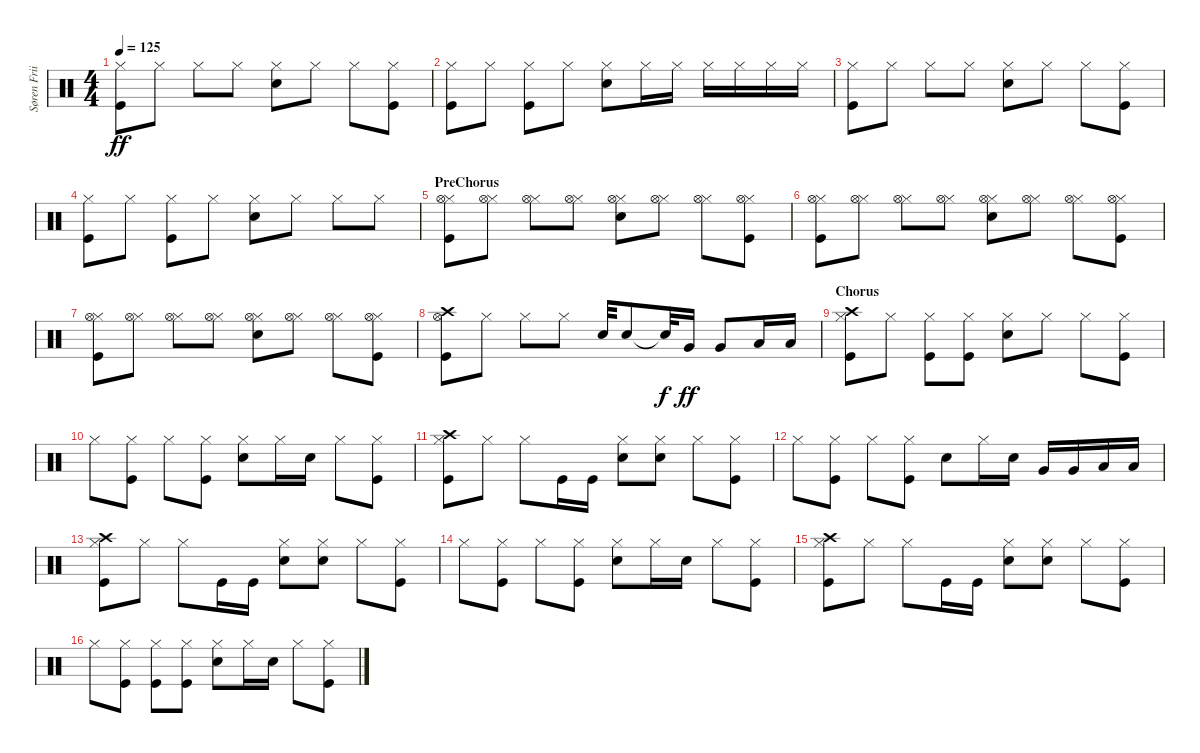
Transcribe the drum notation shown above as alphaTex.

\track ("Søren Friis - Drums" "Søren Frii") {instrument percussion}
\staff {score}
\articulation defaults
\ts (4 4)
\tempo 125
\clef neutral
\ks c
("Kick (hit)" "Hi-Hat (closed)").8{dy ff} "Hi-Hat (closed)".8 "Hi-Hat (closed)".8 "Hi-Hat (closed)".8 ("Snare (hit) 2" "Hi-Hat (closed)").8 "Hi-Hat (closed)".8 "Hi-Hat (closed)".8 ("Kick (hit)" "Hi-Hat (closed)").8 |
("Kick (hit)" "Hi-Hat (closed)").8 "Hi-Hat (closed)".8 ("Kick (hit)" "Hi-Hat (closed)").8 "Hi-Hat (closed)".8 ("Snare (hit) 2" "Hi-Hat (closed)").8 "Hi-Hat (closed)".16 "Hi-Hat (closed)".16 "Hi-Hat (closed)".16 "Hi-Hat (closed)".16 "Hi-Hat (closed)".16 "Hi-Hat (closed)".16 |
("Kick (hit)" "Hi-Hat (closed)").8 "Hi-Hat (closed)".8 "Hi-Hat (closed)".8 "Hi-Hat (closed)".8 ("Snare (hit) 2" "Hi-Hat (closed)").8 "Hi-Hat (closed)".8 "Hi-Hat (closed)".8 ("Kick (hit)" "Hi-Hat (closed)").8 |
("Kick (hit)" "Hi-Hat (closed)").8 "Hi-Hat (closed)".8 ("Kick (hit)" "Hi-Hat (closed)").8 "Hi-Hat (closed)".8 ("Snare (hit) 2" "Hi-Hat (closed)").8 "Hi-Hat (closed)".8 "Hi-Hat (closed)".8 "Hi-Hat (closed)".8 |
\section ("" "PreChorus")
("Kick (hit)" "Hi-Hat (closed)" "Hi-Hat (open)").8 ("Hi-Hat (closed)" "Hi-Hat (open)").8 ("Hi-Hat (closed)" "Hi-Hat (open)").8 ("Hi-Hat (closed)" "Hi-Hat (open)").8 ("Snare (hit) 2" "Hi-Hat (closed)" "Hi-Hat (open)").8 ("Hi-Hat (closed)" "Hi-Hat (open)").8 ("Hi-Hat (closed)" "Hi-Hat (open)").8 ("Kick (hit)" "Hi-Hat (closed)" "Hi-Hat (open)").8 |
("Kick (hit)" "Hi-Hat (closed)" "Hi-Hat (open)").8 ("Hi-Hat (closed)" "Hi-Hat (open)").8 ("Hi-Hat (closed)" "Hi-Hat (open)").8 ("Hi-Hat (closed)" "Hi-Hat (open)").8 ("Snare (hit) 2" "Hi-Hat (closed)" "Hi-Hat (open)").8 ("Hi-Hat (closed)" "Hi-Hat (open)").8 ("Hi-Hat (closed)" "Hi-Hat (open)").8 ("Kick (hit)" "Hi-Hat (closed)" "Hi-Hat (open)").8 |
("Kick (hit)" "Hi-Hat (closed)" "Hi-Hat (open)").8 ("Hi-Hat (closed)" "Hi-Hat (open)").8 ("Hi-Hat (closed)" "Hi-Hat (open)").8 ("Hi-Hat (closed)" "Hi-Hat (open)").8 ("Snare (hit) 2" "Hi-Hat (closed)" "Hi-Hat (open)").8 ("Hi-Hat (closed)" "Hi-Hat (open)").8 ("Hi-Hat (closed)" "Hi-Hat (open)").8 ("Kick (hit)" "Hi-Hat (closed)" "Hi-Hat (open)").8 |
("Kick (hit)" "Hi-Hat (open)" "Crash high (hit)").8 "Hi-Hat (closed)".8 "Hi-Hat (closed)".8 "Hi-Hat (closed)".8 "Snare (hit) 2".32 "Snare (hit) 2".8 "Snare (hit)"{t}.32{dy f} "Very Low Tom (hit)".16{dy ff} "Very Low Tom (hit)".8 "Low Floor Tom (hit)".16 "Low Floor Tom (hit)".16 |
\section ("" "Chorus")
("Kick (hit)" "Hi-Hat (closed)" "Crash high (hit)").8 "Hi-Hat (closed)".8 ("Kick (hit)" "Hi-Hat (closed)").8 ("Kick (hit)" "Hi-Hat (closed)").8 ("Snare (hit) 2" "Hi-Hat (closed)").8 "Hi-Hat (closed)".8 "Hi-Hat (closed)".8 ("Kick (hit)" "Hi-Hat (closed)").8 |
"Hi-Hat (closed)".8 ("Kick (hit)" "Hi-Hat (closed)").8 "Hi-Hat (closed)".8 ("Kick (hit)" "Hi-Hat (closed)").8 ("Snare (hit) 2" "Hi-Hat (closed)").8 "Hi-Hat (closed)".16 "Snare (hit) 2".16 "Hi-Hat (closed)".8 ("Kick (hit)" "Hi-Hat (closed)").8 |
("Kick (hit)" "Hi-Hat (closed)" "Crash high (hit)").8 "Hi-Hat (closed)".8 "Hi-Hat (closed)".8 "Kick (hit)".16 "Kick (hit)".16 ("Snare (hit) 2" "Hi-Hat (closed)").8 ("Snare (hit) 2" "Hi-Hat (closed)").8 "Hi-Hat (closed)".8 ("Kick (hit)" "Hi-Hat (closed)").8 |
"Hi-Hat (closed)".8 ("Kick (hit)" "Hi-Hat (closed)").8 "Hi-Hat (closed)".8 ("Kick (hit)" "Hi-Hat (closed)").8 "Snare (hit) 2".8 "Hi-Hat (closed)".16 "Snare (hit) 2".16 "Very Low Tom (hit)".16 "Very Low Tom (hit)".16 "Low Floor Tom (hit)".16 "Low Floor Tom (hit)".16 |
("Kick (hit)" "Hi-Hat (closed)" "Crash high (hit)").8 "Hi-Hat (closed)".8 "Hi-Hat (closed)".8 "Kick (hit)".16 "Kick (hit)".16 ("Snare (hit) 2" "Hi-Hat (closed)").8 ("Snare (hit) 2" "Hi-Hat (closed)").8 "Hi-Hat (closed)".8 ("Kick (hit)" "Hi-Hat (closed)").8 |
"Hi-Hat (closed)".8 ("Kick (hit)" "Hi-Hat (closed)").8 "Hi-Hat (closed)".8 ("Kick (hit)" "Hi-Hat (closed)").8 ("Snare (hit) 2" "Hi-Hat (closed)").8 "Hi-Hat (closed)".16 "Snare (hit) 2".16 "Hi-Hat (closed)".8 ("Kick (hit)" "Hi-Hat (closed)").8 |
("Kick (hit)" "Hi-Hat (closed)" "Crash high (hit)").8 "Hi-Hat (closed)".8 "Hi-Hat (closed)".8 "Kick (hit)".16 "Kick (hit)".16 ("Snare (hit) 2" "Hi-Hat (closed)").8 ("Snare (hit) 2" "Hi-Hat (closed)").8 "Hi-Hat (closed)".8 ("Kick (hit)" "Hi-Hat (closed)").8 |
"Hi-Hat (closed)".8 ("Kick (hit)" "Hi-Hat (closed)").8 ("Kick (hit)" "Hi-Hat (closed)").8 ("Kick (hit)" "Hi-Hat (closed)").8 ("Snare (hit) 2" "Hi-Hat (closed)").8 "Hi-Hat (closed)".16 "Snare (hit) 2".16 "Hi-Hat (closed)".8 ("Kick (hit)" "Hi-Hat (closed)").8
